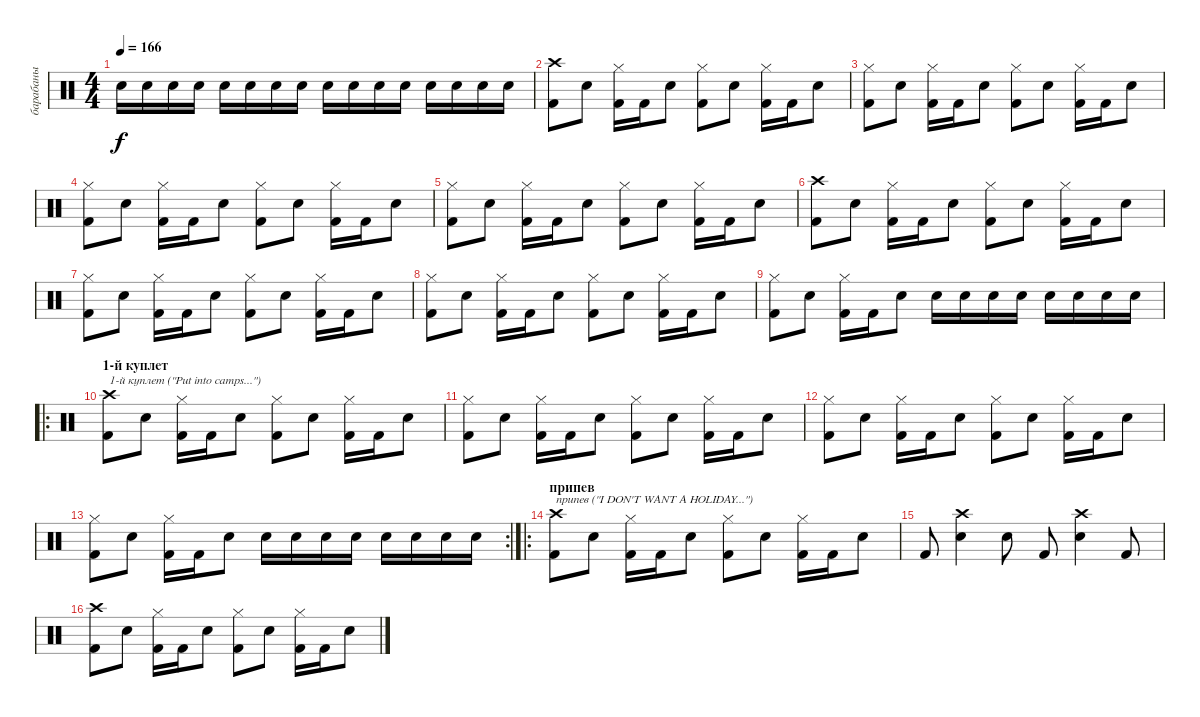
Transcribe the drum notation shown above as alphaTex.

\track ("барабаны" "барабаны") {instrument percussion}
\staff {score}
\articulation defaults
\ts (4 4)
\tempo 166
\clef neutral
\ks c "Snare (hit) 2".16{dy f} "Snare (hit) 2".16 "Snare (hit) 2".16 "Snare (hit) 2".16 "Snare (hit) 2".16 "Snare (hit) 2".16 "Snare (hit) 2".16 "Snare (hit) 2".16 "Snare (hit) 2".16 "Snare (hit) 2".16 "Snare (hit) 2".16 "Snare (hit) 2".16 "Snare (hit) 2".16 "Snare (hit) 2".16 "Snare (hit) 2".16 "Snare (hit) 2".16
|
("Crash high (hit)" "Kick (hit) 2").8 "Snare (hit) 2".8 ("Hi-Hat (closed)" "Kick (hit) 2").16 "Kick (hit) 2".16 "Snare (hit) 2".8 ("Hi-Hat (closed)" "Kick (hit) 2").8 "Snare (hit) 2".8 ("Hi-Hat (closed)" "Kick (hit) 2").16 "Kick (hit) 2".16 "Snare (hit) 2".8 |
("Hi-Hat (closed)" "Kick (hit) 2").8 "Snare (hit) 2".8 ("Hi-Hat (closed)" "Kick (hit) 2").16 "Kick (hit) 2".16 "Snare (hit) 2".8 ("Hi-Hat (closed)" "Kick (hit) 2").8 "Snare (hit) 2".8 ("Hi-Hat (closed)" "Kick (hit) 2").16 "Kick (hit) 2".16 "Snare (hit) 2".8 |
("Hi-Hat (closed)" "Kick (hit) 2").8 "Snare (hit) 2".8 ("Hi-Hat (closed)" "Kick (hit) 2").16 "Kick (hit) 2".16 "Snare (hit) 2".8 ("Hi-Hat (closed)" "Kick (hit) 2").8 "Snare (hit) 2".8 ("Hi-Hat (closed)" "Kick (hit) 2").16 "Kick (hit) 2".16 "Snare (hit) 2".8 |
("Hi-Hat (closed)" "Kick (hit) 2").8 "Snare (hit) 2".8 ("Hi-Hat (closed)" "Kick (hit) 2").16 "Kick (hit) 2".16 "Snare (hit) 2".8 ("Hi-Hat (closed)" "Kick (hit) 2").8 "Snare (hit) 2".8 ("Hi-Hat (closed)" "Kick (hit) 2").16 "Kick (hit) 2".16 "Snare (hit) 2".8 |
("Crash high (hit)" "Kick (hit) 2").8 "Snare (hit) 2".8 ("Hi-Hat (closed)" "Kick (hit) 2").16 "Kick (hit) 2".16 "Snare (hit) 2".8 ("Hi-Hat (closed)" "Kick (hit) 2").8 "Snare (hit) 2".8 ("Hi-Hat (closed)" "Kick (hit) 2").16 "Kick (hit) 2".16 "Snare (hit) 2".8 |
("Hi-Hat (closed)" "Kick (hit) 2").8 "Snare (hit) 2".8 ("Hi-Hat (closed)" "Kick (hit) 2").16 "Kick (hit) 2".16 "Snare (hit) 2".8 ("Hi-Hat (closed)" "Kick (hit) 2").8 "Snare (hit) 2".8 ("Hi-Hat (closed)" "Kick (hit) 2").16 "Kick (hit) 2".16 "Snare (hit) 2".8 |
("Hi-Hat (closed)" "Kick (hit) 2").8 "Snare (hit) 2".8 ("Hi-Hat (closed)" "Kick (hit) 2").16 "Kick (hit) 2".16 "Snare (hit) 2".8 ("Hi-Hat (closed)" "Kick (hit) 2").8 "Snare (hit) 2".8 ("Hi-Hat (closed)" "Kick (hit) 2").16 "Kick (hit) 2".16 "Snare (hit) 2".8 |
("Hi-Hat (closed)" "Kick (hit) 2").8 "Snare (hit) 2".8 ("Hi-Hat (closed)" "Kick (hit) 2").16 "Kick (hit) 2".16 "Snare (hit) 2".8 "Snare (hit) 2".16 "Snare (hit) 2".16 "Snare (hit) 2".16 "Snare (hit) 2".16 "Snare (hit) 2".16 "Snare (hit) 2".16 "Snare (hit) 2".16 "Snare (hit) 2".16 |
\ro
\section ("" "1-й куплет")
("Crash high (hit)" "Kick (hit) 2").8{txt "1-й куплет (\"Put into camps...\")"} "Snare (hit) 2".8 ("Hi-Hat (closed)" "Kick (hit) 2").16 "Kick (hit) 2".16 "Snare (hit) 2".8 ("Hi-Hat (closed)" "Kick (hit) 2").8 "Snare (hit) 2".8 ("Hi-Hat (closed)" "Kick (hit) 2").16 "Kick (hit) 2".16 "Snare (hit) 2".8 |
("Hi-Hat (closed)" "Kick (hit) 2").8 "Snare (hit) 2".8 ("Hi-Hat (closed)" "Kick (hit) 2").16 "Kick (hit) 2".16 "Snare (hit) 2".8 ("Hi-Hat (closed)" "Kick (hit) 2").8 "Snare (hit) 2".8 ("Hi-Hat (closed)" "Kick (hit) 2").16 "Kick (hit) 2".16 "Snare (hit) 2".8 |
("Hi-Hat (closed)" "Kick (hit) 2").8 "Snare (hit) 2".8 ("Hi-Hat (closed)" "Kick (hit) 2").16 "Kick (hit) 2".16 "Snare (hit) 2".8 ("Hi-Hat (closed)" "Kick (hit) 2").8 "Snare (hit) 2".8 ("Hi-Hat (closed)" "Kick (hit) 2").16 "Kick (hit) 2".16 "Snare (hit) 2".8 |
\rc 2
("Hi-Hat (closed)" "Kick (hit) 2").8 "Snare (hit) 2".8 ("Hi-Hat (closed)" "Kick (hit) 2").16 "Kick (hit) 2".16 "Snare (hit) 2".8 "Snare (hit) 2".16 "Snare (hit) 2".16 "Snare (hit) 2".16 "Snare (hit) 2".16 "Snare (hit) 2".16 "Snare (hit) 2".16 "Snare (hit) 2".16 "Snare (hit) 2".16 |
\ro
\section ("" "припев")
("Crash high (hit)" "Kick (hit) 2").8{txt "припев (\"I DON'T WANT A HOLIDAY...\")"} "Snare (hit) 2".8 ("Hi-Hat (closed)" "Kick (hit) 2").16 "Kick (hit) 2".16 "Snare (hit) 2".8 ("Hi-Hat (closed)" "Kick (hit) 2").8 "Snare (hit) 2".8 ("Hi-Hat (closed)" "Kick (hit) 2").16 "Kick (hit) 2".16 "Snare (hit) 2".8 |
"Kick (hit) 2".8 ("Crash high (hit)" "Snare (hit) 2").4 "Snare (hit) 2".8 "Kick (hit) 2".8 ("Crash high (hit)" "Snare (hit) 2").4 "Kick (hit) 2".8 |
("Crash high (hit)" "Kick (hit) 2").8 "Snare (hit) 2".8 ("Hi-Hat (closed)" "Kick (hit) 2").16 "Kick (hit) 2".16 "Snare (hit) 2".8 ("Hi-Hat (closed)" "Kick (hit) 2").8 "Snare (hit) 2".8 ("Hi-Hat (closed)" "Kick (hit) 2").16 "Kick (hit) 2".16 "Snare (hit) 2".8
